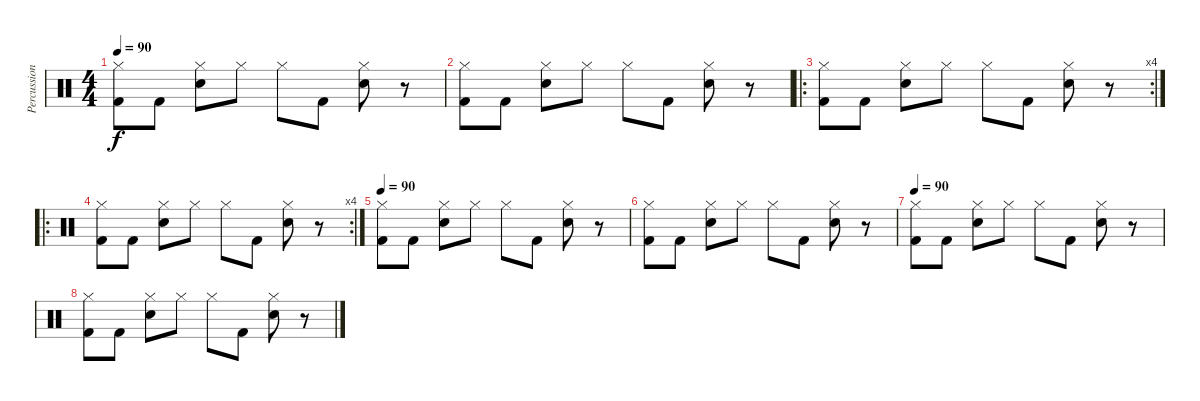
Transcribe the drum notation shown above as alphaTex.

\track ("Percussion" "Percussion") {instrument percussion}
\staff {score}
\articulation defaults
\ts (4 4)
\tempo 90
\clef neutral
\ks c
("Hi-Hat (closed)" "Kick (hit) 2").8{dy f} "Kick (hit) 2".8 ("Hi-Hat (closed)" "Electric Snare (hit)").8 "Hi-Hat (closed)".8 "Hi-Hat (closed)".8 "Kick (hit) 2".8 ("Hi-Hat (closed)" "Electric Snare (hit)").8 r.8 |
("Hi-Hat (closed)" "Kick (hit) 2").8 "Kick (hit) 2".8 ("Hi-Hat (closed)" "Electric Snare (hit)").8 "Hi-Hat (closed)".8 "Hi-Hat (closed)".8 "Kick (hit) 2".8 ("Hi-Hat (closed)" "Electric Snare (hit)").8 r.8 |
\ro
\rc 4
("Hi-Hat (closed)" "Kick (hit) 2").8 "Kick (hit) 2".8 ("Hi-Hat (closed)" "Electric Snare (hit)").8 "Hi-Hat (closed)".8 "Hi-Hat (closed)".8 "Kick (hit) 2".8 ("Hi-Hat (closed)" "Electric Snare (hit)").8 r.8 |
\ro
\rc 4
("Hi-Hat (closed)" "Kick (hit) 2").8 "Kick (hit) 2".8 ("Hi-Hat (closed)" "Electric Snare (hit)").8 "Hi-Hat (closed)".8 "Hi-Hat (closed)".8 "Kick (hit) 2".8 ("Hi-Hat (closed)" "Electric Snare (hit)").8 r.8 |
\tempo 90
("Hi-Hat (closed)" "Kick (hit) 2").8 "Kick (hit) 2".8 ("Hi-Hat (closed)" "Electric Snare (hit)").8 "Hi-Hat (closed)".8 "Hi-Hat (closed)".8 "Kick (hit) 2".8 ("Hi-Hat (closed)" "Electric Snare (hit)").8 r.8 |
("Hi-Hat (closed)" "Kick (hit) 2").8 "Kick (hit) 2".8 ("Hi-Hat (closed)" "Electric Snare (hit)").8 "Hi-Hat (closed)".8 "Hi-Hat (closed)".8 "Kick (hit) 2".8 ("Hi-Hat (closed)" "Electric Snare (hit)").8 r.8 |
\tempo 90
("Hi-Hat (closed)" "Kick (hit) 2").8 "Kick (hit) 2".8 ("Hi-Hat (closed)" "Electric Snare (hit)").8 "Hi-Hat (closed)".8 "Hi-Hat (closed)".8 "Kick (hit) 2".8 ("Hi-Hat (closed)" "Electric Snare (hit)").8 r.8 |
("Hi-Hat (closed)" "Kick (hit) 2").8 "Kick (hit) 2".8 ("Hi-Hat (closed)" "Electric Snare (hit)").8 "Hi-Hat (closed)".8 "Hi-Hat (closed)".8 "Kick (hit) 2".8 ("Hi-Hat (closed)" "Electric Snare (hit)").8 r.8
